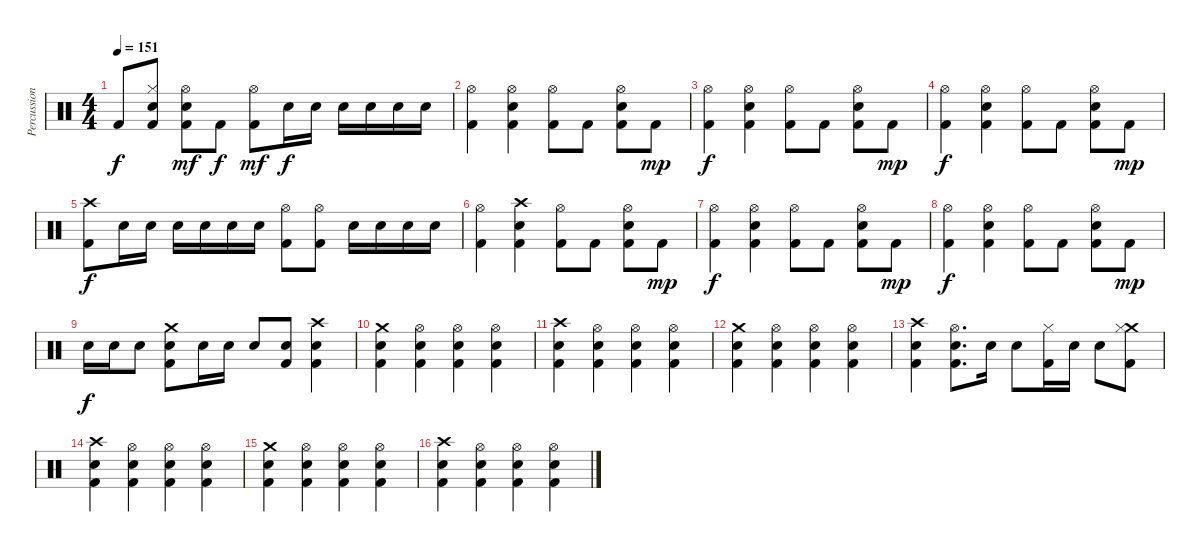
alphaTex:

\track ("Percussion" "Percussion") {instrument percussion}
\staff {score}
\articulation defaults
\ts (4 4)
\tempo 151
\clef neutral
\ks c "Kick (hit) 2".8{dy f}
("Hi-Hat (closed)" "Snare (hit) 2" "Kick (hit) 2").8 ("Hi-Hat (open)" "Snare (hit) 2" "Kick (hit) 2").8{dy mf} "Kick (hit) 2".8{dy f} ("Hi-Hat (open)" "Kick (hit) 2").8{dy mf} "Snare (hit) 2".16{dy f} "Snare (hit) 2".16 "Snare (hit) 2".16 "Snare (hit) 2".16 "Snare (hit) 2".16 "Snare (hit) 2".16 |
("Hi-Hat (open)" "Kick (hit) 2").4 ("Hi-Hat (open)" "Snare (hit) 2" "Kick (hit) 2").4 ("Hi-Hat (open)" "Kick (hit) 2").8 "Kick (hit) 2".8 ("Hi-Hat (open)" "Snare (hit) 2" "Kick (hit) 2").8 "Kick (hit) 2".8{dy mp} |
("Hi-Hat (open)" "Kick (hit) 2").4{dy f} ("Hi-Hat (open)" "Snare (hit) 2" "Kick (hit) 2").4 ("Hi-Hat (open)" "Kick (hit) 2").8 "Kick (hit) 2".8 ("Hi-Hat (open)" "Snare (hit) 2" "Kick (hit) 2").8 "Kick (hit) 2".8{dy mp} |
("Hi-Hat (open)" "Kick (hit) 2").4{dy f} ("Hi-Hat (open)" "Snare (hit) 2" "Kick (hit) 2").4 ("Hi-Hat (open)" "Kick (hit) 2").8 "Kick (hit) 2".8 ("Hi-Hat (open)" "Snare (hit) 2" "Kick (hit) 2").8 "Kick (hit) 2".8{dy mp} |
("Crash high (hit)" "Kick (hit) 2").8{dy f} "Snare (hit) 2".16 "Snare (hit) 2".16 "Snare (hit) 2".16 "Snare (hit) 2".16 "Snare (hit) 2".16 "Snare (hit) 2".16 ("Hi-Hat (open)" "Kick (hit) 2").8 ("Hi-Hat (open)" "Kick (hit) 2").8 "Snare (hit) 2".16 "Snare (hit) 2".16 "Snare (hit) 2".16 "Snare (hit) 2".16 |
("Hi-Hat (open)" "Kick (hit) 2").4 ("Crash high (hit)" "Snare (hit) 2" "Kick (hit) 2").4 ("Hi-Hat (open)" "Kick (hit) 2").8 "Kick (hit) 2".8 ("Hi-Hat (open)" "Snare (hit) 2" "Kick (hit) 2").8 "Kick (hit) 2".8{dy mp} |
("Hi-Hat (open)" "Kick (hit) 2").4{dy f} ("Hi-Hat (open)" "Snare (hit) 2" "Kick (hit) 2").4 ("Hi-Hat (open)" "Kick (hit) 2").8 "Kick (hit) 2".8 ("Hi-Hat (open)" "Snare (hit) 2" "Kick (hit) 2").8 "Kick (hit) 2".8{dy mp} |
("Hi-Hat (open)" "Kick (hit) 2").4{dy f} ("Hi-Hat (open)" "Snare (hit) 2" "Kick (hit) 2").4 ("Hi-Hat (open)" "Kick (hit) 2").8 "Kick (hit) 2".8 ("Hi-Hat (open)" "Snare (hit) 2" "Kick (hit) 2").8 "Kick (hit) 2".8{dy mp} |
"Snare (hit) 2".16{dy f} "Snare (hit) 2".16 "Snare (hit) 2".8 ("Crash medium (hit)" "Snare (hit) 2" "Kick (hit) 2").8 "Snare (hit) 2".16 "Snare (hit) 2".16 "Snare (hit) 2".8 ("Snare (hit) 2" "Kick (hit) 2").8 ("Crash high (hit)" "Snare (hit) 2" "Kick (hit) 2").4 |
("Crash medium (hit)" "Snare (hit) 2" "Kick (hit) 2").4 ("Hi-Hat (open)" "Snare (hit) 2" "Kick (hit) 2").4 ("Hi-Hat (open)" "Snare (hit) 2" "Kick (hit) 2").4 ("Hi-Hat (open)" "Snare (hit) 2" "Kick (hit) 2").4 |
("Crash high (hit)" "Snare (hit) 2" "Kick (hit) 2").4 ("Hi-Hat (open)" "Snare (hit) 2" "Kick (hit) 2").4 ("Hi-Hat (open)" "Snare (hit) 2" "Kick (hit) 2").4 ("Hi-Hat (open)" "Snare (hit) 2" "Kick (hit) 2").4 |
("Crash medium (hit)" "Snare (hit) 2" "Kick (hit) 2").4 ("Hi-Hat (open)" "Snare (hit) 2" "Kick (hit) 2").4 ("Hi-Hat (open)" "Snare (hit) 2" "Kick (hit) 2").4 ("Hi-Hat (open)" "Snare (hit) 2" "Kick (hit) 2").4 |
("Crash high (hit)" "Snare (hit) 2" "Kick (hit) 2").4 ("Hi-Hat (open)" "Snare (hit) 2" "Kick (hit) 2").8{d} "Snare (hit) 2".16 "Snare (hit) 2".8 ("Hi-Hat (closed)" "Kick (hit) 2").16 "Snare (hit) 2".16 "Snare (hit) 2".8 ("Crash medium (hit)" "Hi-Hat (closed)" "Kick (hit) 2").8 |
("Crash high (hit)" "Snare (hit) 2" "Kick (hit) 2").4 ("Hi-Hat (open)" "Snare (hit) 2" "Kick (hit) 2").4 ("Hi-Hat (open)" "Snare (hit) 2" "Kick (hit) 2").4 ("Hi-Hat (open)" "Snare (hit) 2" "Kick (hit) 2").4 |
("Crash medium (hit)" "Snare (hit) 2" "Kick (hit) 2").4 ("Hi-Hat (open)" "Snare (hit) 2" "Kick (hit) 2").4 ("Hi-Hat (open)" "Snare (hit) 2" "Kick (hit) 2").4 ("Hi-Hat (open)" "Snare (hit) 2" "Kick (hit) 2").4 |
("Crash high (hit)" "Snare (hit) 2" "Kick (hit) 2").4 ("Hi-Hat (open)" "Snare (hit) 2" "Kick (hit) 2").4 ("Hi-Hat (open)" "Snare (hit) 2" "Kick (hit) 2").4 ("Hi-Hat (open)" "Snare (hit) 2" "Kick (hit) 2").4
